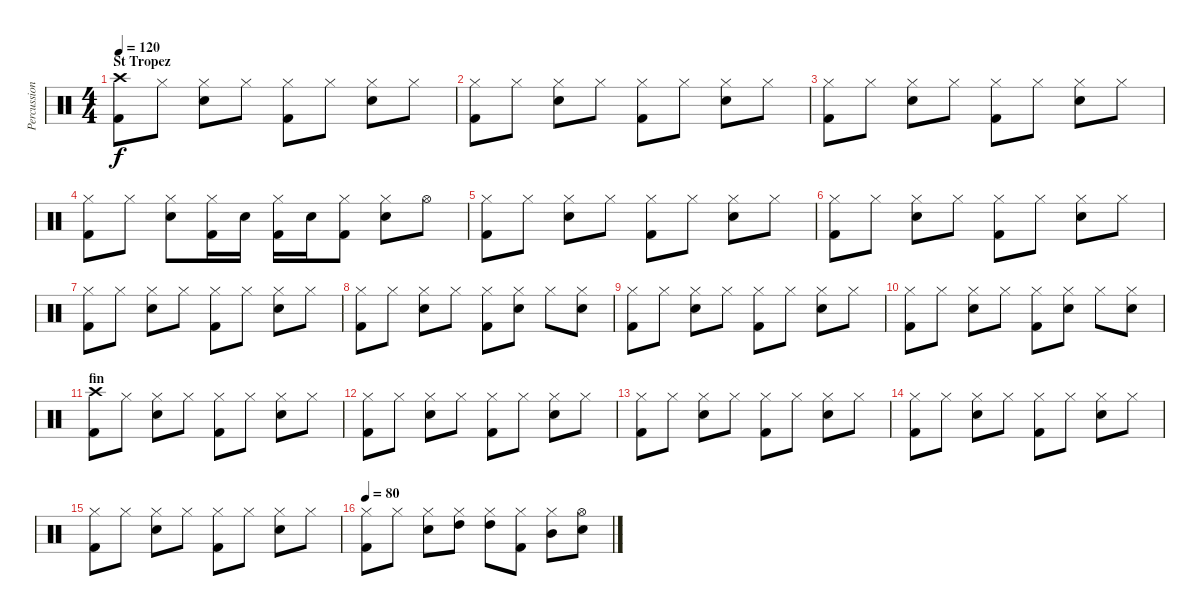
\track ("Percussions" "Percussion") {instrument percussion}
\staff {score}
\articulation defaults
\ts (4 4)
\section ("" "St Tropez")
\tempo 120
\clef neutral
\ks c
("Crash high (hit)" "Kick (hit) 2").8{dy f} "Hi-Hat (closed)".8 ("Hi-Hat (closed)" "Electric Snare (hit)").8 "Hi-Hat (closed)".8 ("Hi-Hat (closed)" "Kick (hit) 2").8 "Hi-Hat (closed)".8 ("Hi-Hat (closed)" "Electric Snare (hit)").8 "Hi-Hat (closed)".8 |
("Hi-Hat (closed)" "Kick (hit) 2").8 "Hi-Hat (closed)".8 ("Hi-Hat (closed)" "Electric Snare (hit)").8 "Hi-Hat (closed)".8 ("Hi-Hat (closed)" "Kick (hit) 2").8 "Hi-Hat (closed)".8 ("Hi-Hat (closed)" "Electric Snare (hit)").8 "Hi-Hat (closed)".8 |
("Hi-Hat (closed)" "Kick (hit) 2").8 "Hi-Hat (closed)".8 ("Hi-Hat (closed)" "Electric Snare (hit)").8 "Hi-Hat (closed)".8 ("Hi-Hat (closed)" "Kick (hit) 2").8 "Hi-Hat (closed)".8 ("Hi-Hat (closed)" "Electric Snare (hit)").8 "Hi-Hat (closed)".8 |
("Hi-Hat (closed)" "Kick (hit) 2").8 "Hi-Hat (closed)".8 ("Hi-Hat (closed)" "Electric Snare (hit)").8 ("Hi-Hat (closed)" "Kick (hit) 2").16 "Electric Snare (hit)".16 ("Hi-Hat (closed)" "Kick (hit) 2").16 "Electric Snare (hit)".16 ("Hi-Hat (closed)" "Kick (hit) 2").8 ("Hi-Hat (closed)" "Electric Snare (hit)").8 "Hi-Hat (open)".8 |
("Hi-Hat (closed)" "Kick (hit) 2").8 "Hi-Hat (closed)".8 ("Hi-Hat (closed)" "Electric Snare (hit)").8 "Hi-Hat (closed)".8 ("Hi-Hat (closed)" "Kick (hit) 2").8 "Hi-Hat (closed)".8 ("Hi-Hat (closed)" "Electric Snare (hit)").8 "Hi-Hat (closed)".8 |
("Hi-Hat (closed)" "Kick (hit) 2").8 "Hi-Hat (closed)".8 ("Hi-Hat (closed)" "Electric Snare (hit)").8 "Hi-Hat (closed)".8 ("Hi-Hat (closed)" "Kick (hit) 2").8 "Hi-Hat (closed)".8 ("Hi-Hat (closed)" "Electric Snare (hit)").8 "Hi-Hat (closed)".8 |
("Hi-Hat (closed)" "Kick (hit) 2").8 "Hi-Hat (closed)".8 ("Hi-Hat (closed)" "Electric Snare (hit)").8 "Hi-Hat (closed)".8 ("Hi-Hat (closed)" "Kick (hit) 2").8 "Hi-Hat (closed)".8 ("Hi-Hat (closed)" "Electric Snare (hit)").8 "Hi-Hat (closed)".8 |
("Hi-Hat (closed)" "Kick (hit) 2").8 "Hi-Hat (closed)".8 ("Hi-Hat (closed)" "Electric Snare (hit)").8 "Hi-Hat (closed)".8 ("Hi-Hat (closed)" "Kick (hit) 2").8 ("Hi-Hat (closed)" "Electric Snare (hit)").8 "Hi-Hat (closed)".8 ("Hi-Hat (closed)" "Electric Snare (hit)").8 |
("Hi-Hat (closed)" "Kick (hit) 2").8 "Hi-Hat (closed)".8 ("Hi-Hat (closed)" "Electric Snare (hit)").8 "Hi-Hat (closed)".8 ("Hi-Hat (closed)" "Kick (hit) 2").8 "Hi-Hat (closed)".8 ("Hi-Hat (closed)" "Electric Snare (hit)").8 "Hi-Hat (closed)".8 |
("Hi-Hat (closed)" "Kick (hit) 2").8 "Hi-Hat (closed)".8 ("Hi-Hat (closed)" "Electric Snare (hit)").8 "Hi-Hat (closed)".8 ("Hi-Hat (closed)" "Kick (hit) 2").8 ("Hi-Hat (closed)" "Electric Snare (hit)").8 "Hi-Hat (closed)".8 ("Hi-Hat (closed)" "Electric Snare (hit)").8 |
\section ("" "fin")
("Crash high (hit)" "Kick (hit) 2").8 "Hi-Hat (closed)".8 ("Hi-Hat (closed)" "Electric Snare (hit)").8 "Hi-Hat (closed)".8 ("Hi-Hat (closed)" "Kick (hit) 2").8 "Hi-Hat (closed)".8 ("Hi-Hat (closed)" "Electric Snare (hit)").8 "Hi-Hat (closed)".8 |
("Hi-Hat (closed)" "Kick (hit) 2").8 "Hi-Hat (closed)".8 ("Hi-Hat (closed)" "Electric Snare (hit)").8 "Hi-Hat (closed)".8 ("Hi-Hat (closed)" "Kick (hit) 2").8 "Hi-Hat (closed)".8 ("Hi-Hat (closed)" "Electric Snare (hit)").8 "Hi-Hat (closed)".8 |
("Hi-Hat (closed)" "Kick (hit) 2").8 "Hi-Hat (closed)".8 ("Hi-Hat (closed)" "Electric Snare (hit)").8 "Hi-Hat (closed)".8 ("Hi-Hat (closed)" "Kick (hit) 2").8 "Hi-Hat (closed)".8 ("Hi-Hat (closed)" "Electric Snare (hit)").8 "Hi-Hat (closed)".8 |
("Hi-Hat (closed)" "Kick (hit) 2").8 "Hi-Hat (closed)".8 ("Hi-Hat (closed)" "Electric Snare (hit)").8 "Hi-Hat (closed)".8 ("Hi-Hat (closed)" "Kick (hit) 2").8 "Hi-Hat (closed)".8 ("Hi-Hat (closed)" "Electric Snare (hit)").8 "Hi-Hat (closed)".8 |
("Hi-Hat (closed)" "Kick (hit) 2").8 "Hi-Hat (closed)".8 ("Hi-Hat (closed)" "Electric Snare (hit)").8 "Hi-Hat (closed)".8 ("Hi-Hat (closed)" "Kick (hit) 2").8 "Hi-Hat (closed)".8 ("Hi-Hat (closed)" "Electric Snare (hit)").8 "Hi-Hat (closed)".8 |
\tempo 80
("Hi-Hat (closed)" "Kick (hit) 2").8 "Hi-Hat (closed)".8 ("Hi-Hat (closed)" "Electric Snare (hit)").8 ("Hi-Hat (closed)" "High Tom (hit)").8 ("Hi-Hat (closed)" "High Tom (hit)").8 ("Hi-Hat (closed)" "Kick (hit) 2").8 ("Hi-Hat (closed)" "Mid Tom (hit)").8 ("Hi-Hat (open)" "Electric Snare (hit)").8
